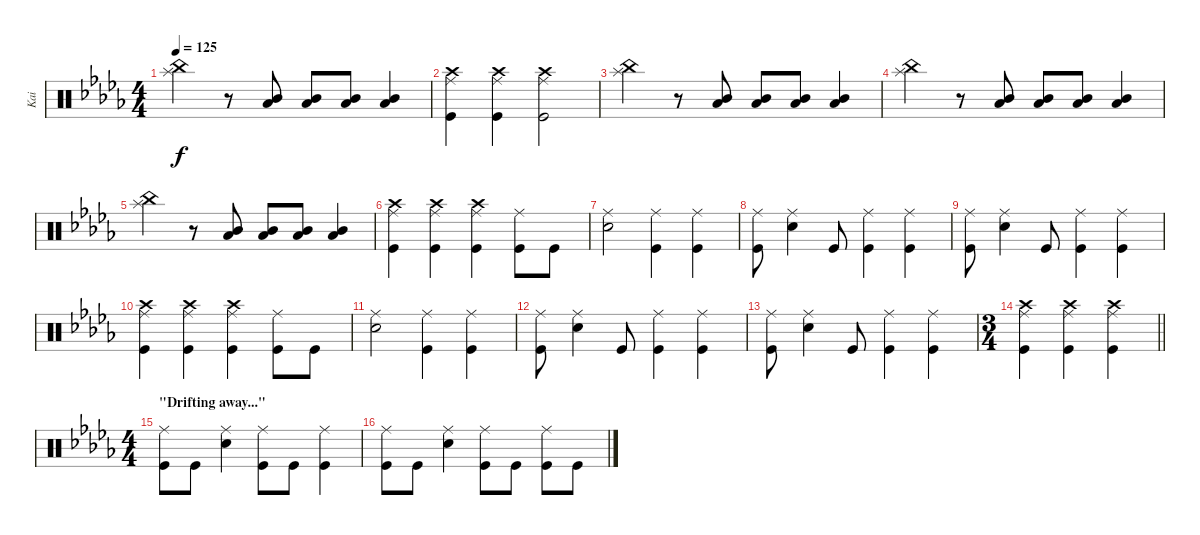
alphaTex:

\track ("Kai" "Kai") {instrument percussion}
\staff {score}
\articulation defaults
\ts (4 4)
\tempo 125
\clef neutral
\ks bbminor
("Splash (hit)" "China (hit)").4{dy f} r.8 ("Low Tom (hit)" "Mid Tom (hit)").8 ("Low Tom (hit)" "Mid Tom (hit)").8 ("Low Tom (hit)" "Mid Tom (hit)").8 ("Low Tom (hit)" "Mid Tom (hit)").4 |
("Ride (middle)" "Crash high (hit)" "Kick (hit)").4 ("Ride (middle)" "Crash high (hit)" "Kick (hit)").4 ("Ride (middle)" "Crash high (hit)" "Kick (hit)").2 |
("Splash (hit)" "China (hit)").4 r.8 ("Low Tom (hit)" "Mid Tom (hit)").8 ("Low Tom (hit)" "Mid Tom (hit)").8 ("Low Tom (hit)" "Mid Tom (hit)").8 ("Low Tom (hit)" "Mid Tom (hit)").4 |
("Splash (hit)" "China (hit)").4 r.8 ("Low Tom (hit)" "Mid Tom (hit)").8 ("Low Tom (hit)" "Mid Tom (hit)").8 ("Low Tom (hit)" "Mid Tom (hit)").8 ("Low Tom (hit)" "Mid Tom (hit)").4 |
("Splash (hit)" "China (hit)").4 r.8 ("Low Tom (hit)" "Mid Tom (hit)").8 ("Low Tom (hit)" "Mid Tom (hit)").8 ("Low Tom (hit)" "Mid Tom (hit)").8 ("Low Tom (hit)" "Mid Tom (hit)").4 |
("Ride (middle)" "Crash high (hit)" "Kick (hit)").4 ("Ride (middle)" "Crash high (hit)" "Kick (hit)").4 ("Ride (middle)" "Crash high (hit)" "Kick (hit)").4 ("Kick (hit)" "Ride (middle)").8 "Kick (hit)".8 |
("Snare (hit) 2" "Ride (middle)").2 ("Kick (hit)" "Ride (middle)").4 ("Kick (hit)" "Ride (middle)").4 |
("Ride (middle)" "Kick (hit)").8 ("Snare (hit) 2" "Ride (middle)").4 "Kick (hit)".8 ("Kick (hit)" "Ride (middle)").4 ("Kick (hit)" "Ride (middle)").4 |
("Ride (middle)" "Kick (hit)").8 ("Snare (hit) 2" "Ride (middle)").4 "Kick (hit)".8 ("Kick (hit)" "Ride (middle)").4 ("Kick (hit)" "Ride (middle)").4 |
("Ride (middle)" "Crash high (hit)" "Kick (hit)").4 ("Ride (middle)" "Crash high (hit)" "Kick (hit)").4 ("Ride (middle)" "Crash high (hit)" "Kick (hit)").4 ("Kick (hit)" "Ride (middle)").8 "Kick (hit)".8 |
("Snare (hit) 2" "Ride (middle)").2 ("Kick (hit)" "Ride (middle)").4 ("Kick (hit)" "Ride (middle)").4 |
("Ride (middle)" "Kick (hit)").8 ("Snare (hit) 2" "Ride (middle)").4 "Kick (hit)".8 ("Kick (hit)" "Ride (middle)").4 ("Kick (hit)" "Ride (middle)").4 |
("Ride (middle)" "Kick (hit)").8 ("Snare (hit) 2" "Ride (middle)").4 "Kick (hit)".8 ("Kick (hit)" "Ride (middle)").4 ("Kick (hit)" "Ride (middle)").4 |
\ts (3 4)
\barLineRight lightlight
("Ride (middle)" "Crash high (hit)" "Kick (hit)").4 ("Ride (middle)" "Crash high (hit)" "Kick (hit)").4 ("Ride (middle)" "Crash high (hit)" "Kick (hit)").4 |
\ts (4 4)
\section ("" "\"Drifting away...\"")
("Ride (middle)" "Kick (hit)").8 "Kick (hit)".8 ("Snare (hit) 2" "Ride (middle)").4 ("Ride (middle)" "Kick (hit)").8 "Kick (hit)".8 ("Kick (hit)" "Ride (middle)").4 |
("Kick (hit)" "Ride (middle)").8 "Kick (hit)".8 ("Snare (hit) 2" "Ride (middle)").4 ("Kick (hit)" "Ride (middle)").8 "Kick (hit)".8 ("Kick (hit)" "Ride (middle)").8 "Kick (hit)".8
